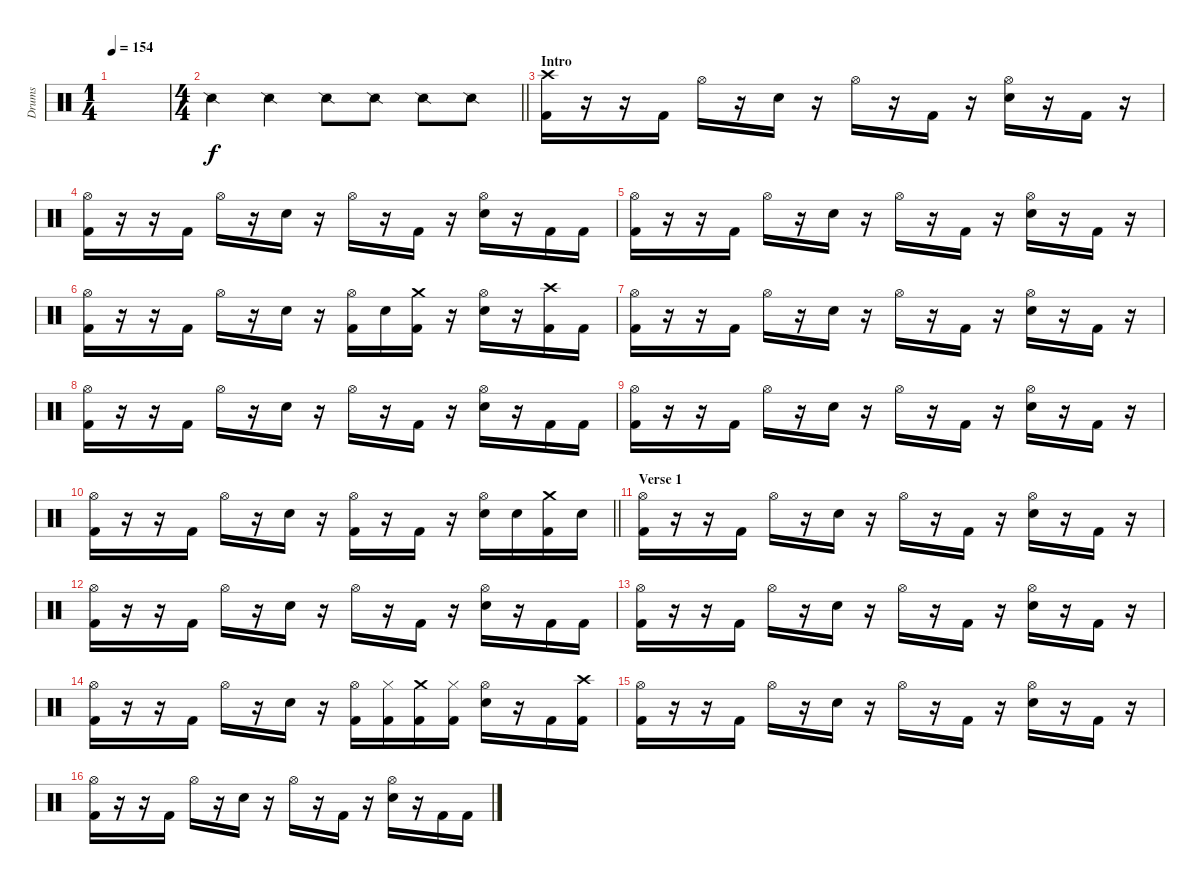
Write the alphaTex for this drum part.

\track ("Drums" "Drums") {instrument percussion}
\staff {score}
\articulation defaults
\ts (1 4)
\tempo 154
\clef neutral
\ks c
|
\ts (4 4)
\barLineRight lightlight "Snare (side stick) 2".4 "Snare (side stick) 2".4 "Snare (side stick) 2".8 "Snare (side stick) 2".8 "Snare (side stick) 2".8 "Snare (side stick) 2".8
|
\section ("" "Intro")
("Crash high (hit)" "Kick (hit) 2").16 r.16 r.16 "Kick (hit) 2".16 "Hi-Hat (open)".16 r.16 "Snare (hit) 2".16 r.16 "Hi-Hat (open)".16 r.16 "Kick (hit) 2".16 r.16 ("Hi-Hat (open)" "Snare (hit) 2").16 r.16 "Kick (hit) 2".16 r.16 |
("Hi-Hat (open)" "Kick (hit) 2").16 r.16 r.16 "Kick (hit) 2".16 "Hi-Hat (open)".16 r.16 "Snare (hit) 2".16 r.16 "Hi-Hat (open)".16 r.16 "Kick (hit) 2".16 r.16 ("Hi-Hat (open)" "Snare (hit) 2").16 r.16 "Kick (hit) 2".16 "Kick (hit) 2".16 |
("Hi-Hat (open)" "Kick (hit) 2").16 r.16 r.16 "Kick (hit) 2".16 "Hi-Hat (open)".16 r.16 "Snare (hit) 2".16 r.16 "Hi-Hat (open)".16 r.16 "Kick (hit) 2".16 r.16 ("Hi-Hat (open)" "Snare (hit) 2").16 r.16 "Kick (hit) 2".16 r.16 |
("Hi-Hat (open)" "Kick (hit) 2").16 r.16 r.16 "Kick (hit) 2".16 "Hi-Hat (open)".16 r.16 "Snare (hit) 2".16 r.16 ("Hi-Hat (open)" "Kick (hit) 2").16 "Snare (hit) 2".16 ("Crash medium (hit)" "Kick (hit) 2").16 r.16 ("Hi-Hat (open)" "Snare (hit) 2").16 r.16 ("Crash high (hit)" "Kick (hit) 2").16 "Kick (hit) 2".16 |
("Hi-Hat (open)" "Kick (hit) 2").16 r.16 r.16 "Kick (hit) 2".16 "Hi-Hat (open)".16 r.16 "Snare (hit) 2".16 r.16 "Hi-Hat (open)".16 r.16 "Kick (hit) 2".16 r.16 ("Hi-Hat (open)" "Snare (hit) 2").16 r.16 "Kick (hit) 2".16 r.16 |
("Hi-Hat (open)" "Kick (hit) 2").16 r.16 r.16 "Kick (hit) 2".16 "Hi-Hat (open)".16 r.16 "Snare (hit) 2".16 r.16 "Hi-Hat (open)".16 r.16 "Kick (hit) 2".16 r.16 ("Hi-Hat (open)" "Snare (hit) 2").16 r.16 "Kick (hit) 2".16 "Kick (hit) 2".16 |
("Hi-Hat (open)" "Kick (hit) 2").16 r.16 r.16 "Kick (hit) 2".16 "Hi-Hat (open)".16 r.16 "Snare (hit) 2".16 r.16 "Hi-Hat (open)".16 r.16 "Kick (hit) 2".16 r.16 ("Hi-Hat (open)" "Snare (hit) 2").16 r.16 "Kick (hit) 2".16 r.16 |
\barLineRight lightlight
("Hi-Hat (open)" "Kick (hit) 2").16 r.16 r.16 "Kick (hit) 2".16 "Hi-Hat (open)".16 r.16 "Snare (hit) 2".16 r.16 ("Hi-Hat (open)" "Kick (hit) 2").16 r.16 "Kick (hit) 2".16 r.16 ("Hi-Hat (open)" "Snare (hit) 2").16 "Snare (hit) 2".16 ("Crash medium (hit)" "Kick (hit) 2").16 "Snare (hit) 2".16 |
\section ("" "Verse 1")
("Hi-Hat (open)" "Kick (hit) 2").16 r.16 r.16 "Kick (hit) 2".16 "Hi-Hat (open)".16 r.16 "Snare (hit) 2".16 r.16 "Hi-Hat (open)".16 r.16 "Kick (hit) 2".16 r.16 ("Hi-Hat (open)" "Snare (hit) 2").16 r.16 "Kick (hit) 2".16 r.16 |
("Hi-Hat (open)" "Kick (hit) 2").16 r.16 r.16 "Kick (hit) 2".16 "Hi-Hat (open)".16 r.16 "Snare (hit) 2".16 r.16 "Hi-Hat (open)".16 r.16 "Kick (hit) 2".16 r.16 ("Hi-Hat (open)" "Snare (hit) 2").16 r.16 "Kick (hit) 2".16 "Kick (hit) 2".16 |
("Hi-Hat (open)" "Kick (hit) 2").16 r.16 r.16 "Kick (hit) 2".16 "Hi-Hat (open)".16 r.16 "Snare (hit) 2".16 r.16 "Hi-Hat (open)".16 r.16 "Kick (hit) 2".16 r.16 ("Hi-Hat (open)" "Snare (hit) 2").16 r.16 "Kick (hit) 2".16 r.16 |
("Hi-Hat (open)" "Kick (hit) 2").16 r.16 r.16 "Kick (hit) 2".16 "Hi-Hat (open)".16 r.16 "Snare (hit) 2".16 r.16 ("Hi-Hat (open)" "Kick (hit) 2").16 ("Hi-Hat (closed)" "Kick (hit) 2").16 ("Crash medium (hit)" "Kick (hit) 2").16 ("Hi-Hat (closed)" "Kick (hit) 2").16 ("Hi-Hat (open)" "Snare (hit) 2").16 r.16 "Kick (hit) 2".16 ("Crash high (hit)" "Kick (hit) 2").16 |
("Hi-Hat (open)" "Kick (hit) 2").16 r.16 r.16 "Kick (hit) 2".16 "Hi-Hat (open)".16 r.16 "Snare (hit) 2".16 r.16 "Hi-Hat (open)".16 r.16 "Kick (hit) 2".16 r.16 ("Hi-Hat (open)" "Snare (hit) 2").16 r.16 "Kick (hit) 2".16 r.16 |
("Hi-Hat (open)" "Kick (hit) 2").16 r.16 r.16 "Kick (hit) 2".16 "Hi-Hat (open)".16 r.16 "Snare (hit) 2".16 r.16 "Hi-Hat (open)".16 r.16 "Kick (hit) 2".16 r.16 ("Hi-Hat (open)" "Snare (hit) 2").16 r.16 "Kick (hit) 2".16 "Kick (hit) 2".16
